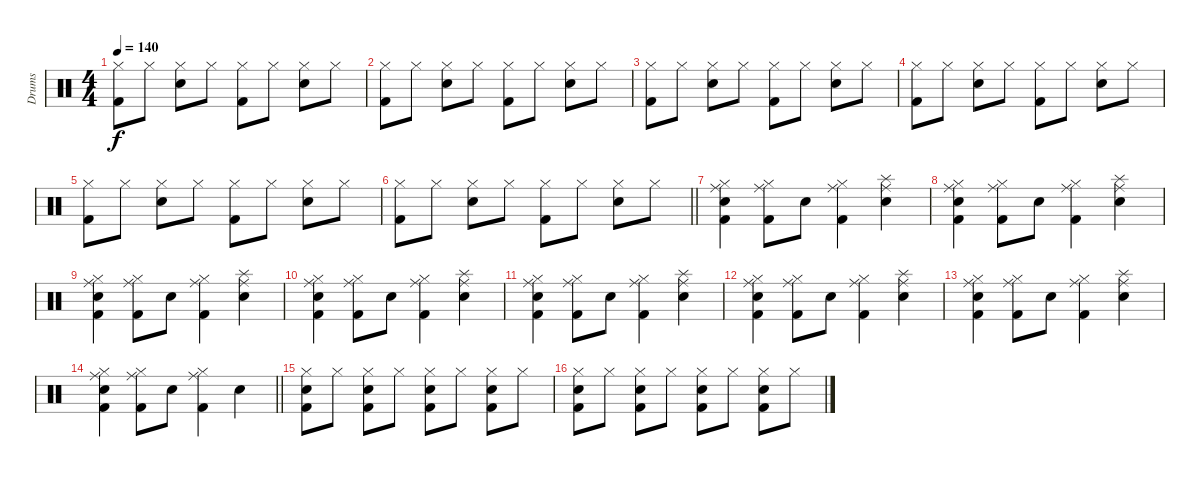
\track ("Drums" "Drums") {instrument percussion}
\staff {score}
\articulation defaults
\ts (4 4)
\tempo 140
\clef neutral
\ks c
("Hi-Hat (closed)" "Kick (hit) 2").8{dy f} "Hi-Hat (closed)".8 ("Hi-Hat (closed)" "Snare (hit) 2").8 "Hi-Hat (closed)".8 ("Hi-Hat (closed)" "Kick (hit) 2").8 "Hi-Hat (closed)".8 ("Hi-Hat (closed)" "Snare (hit) 2").8 "Hi-Hat (closed)".8 |
("Hi-Hat (closed)" "Kick (hit) 2").8 "Hi-Hat (closed)".8 ("Hi-Hat (closed)" "Snare (hit) 2").8 "Hi-Hat (closed)".8 ("Hi-Hat (closed)" "Kick (hit) 2").8 "Hi-Hat (closed)".8 ("Hi-Hat (closed)" "Snare (hit) 2").8 "Hi-Hat (closed)".8 |
("Hi-Hat (closed)" "Kick (hit) 2").8 "Hi-Hat (closed)".8 ("Hi-Hat (closed)" "Snare (hit) 2").8 "Hi-Hat (closed)".8 ("Hi-Hat (closed)" "Kick (hit) 2").8 "Hi-Hat (closed)".8 ("Hi-Hat (closed)" "Snare (hit) 2").8 "Hi-Hat (closed)".8 |
("Hi-Hat (closed)" "Kick (hit) 2").8 "Hi-Hat (closed)".8 ("Hi-Hat (closed)" "Snare (hit) 2").8 "Hi-Hat (closed)".8 ("Hi-Hat (closed)" "Kick (hit) 2").8 "Hi-Hat (closed)".8 ("Hi-Hat (closed)" "Snare (hit) 2").8 "Hi-Hat (closed)".8 |
("Hi-Hat (closed)" "Kick (hit) 2").8 "Hi-Hat (closed)".8 ("Hi-Hat (closed)" "Snare (hit) 2").8 "Hi-Hat (closed)".8 ("Hi-Hat (closed)" "Kick (hit) 2").8 "Hi-Hat (closed)".8 ("Hi-Hat (closed)" "Snare (hit) 2").8 "Hi-Hat (closed)".8 |
\barLineRight lightlight
("Hi-Hat (closed)" "Kick (hit) 2").8 "Hi-Hat (closed)".8 ("Hi-Hat (closed)" "Snare (hit) 2").8 "Hi-Hat (closed)".8 ("Hi-Hat (closed)" "Kick (hit) 2").8 "Hi-Hat (closed)".8 ("Hi-Hat (closed)" "Snare (hit) 2").8 "Hi-Hat (closed)".8 |
("Hi-Hat (closed)" "Ride (middle)" "Electric Snare (hit)" "Kick (hit) 2").4 ("Hi-Hat (closed)" "Ride (middle)" "Kick (hit) 2").8 "Electric Snare (hit)".8 ("Hi-Hat (closed)" "Ride (middle)" "Kick (hit) 2").4 ("Splash (hit)" "Ride (middle)" "Electric Snare (hit)").4 |
("Hi-Hat (closed)" "Ride (middle)" "Electric Snare (hit)" "Kick (hit) 2").4 ("Hi-Hat (closed)" "Ride (middle)" "Kick (hit) 2").8 "Electric Snare (hit)".8 ("Hi-Hat (closed)" "Ride (middle)" "Kick (hit) 2").4 ("Splash (hit)" "Ride (middle)" "Electric Snare (hit)").4 |
("Hi-Hat (closed)" "Ride (middle)" "Electric Snare (hit)" "Kick (hit) 2").4 ("Hi-Hat (closed)" "Ride (middle)" "Kick (hit) 2").8 "Electric Snare (hit)".8 ("Hi-Hat (closed)" "Ride (middle)" "Kick (hit) 2").4 ("Splash (hit)" "Ride (middle)" "Electric Snare (hit)").4 |
("Hi-Hat (closed)" "Ride (middle)" "Electric Snare (hit)" "Kick (hit) 2").4 ("Hi-Hat (closed)" "Ride (middle)" "Kick (hit) 2").8 "Electric Snare (hit)".8 ("Hi-Hat (closed)" "Ride (middle)" "Kick (hit) 2").4 ("Splash (hit)" "Ride (middle)" "Electric Snare (hit)").4 |
("Hi-Hat (closed)" "Ride (middle)" "Electric Snare (hit)" "Kick (hit) 2").4 ("Hi-Hat (closed)" "Ride (middle)" "Kick (hit) 2").8 "Electric Snare (hit)".8 ("Hi-Hat (closed)" "Ride (middle)" "Kick (hit) 2").4 ("Splash (hit)" "Ride (middle)" "Electric Snare (hit)").4 |
("Hi-Hat (closed)" "Ride (middle)" "Electric Snare (hit)" "Kick (hit) 2").4 ("Hi-Hat (closed)" "Ride (middle)" "Kick (hit) 2").8 "Electric Snare (hit)".8 ("Hi-Hat (closed)" "Ride (middle)" "Kick (hit) 2").4 ("Splash (hit)" "Ride (middle)" "Electric Snare (hit)").4 |
("Hi-Hat (closed)" "Ride (middle)" "Electric Snare (hit)" "Kick (hit) 2").4 ("Hi-Hat (closed)" "Ride (middle)" "Kick (hit) 2").8 "Electric Snare (hit)".8 ("Hi-Hat (closed)" "Ride (middle)" "Kick (hit) 2").4 ("Splash (hit)" "Ride (middle)" "Electric Snare (hit)").4 |
\barLineRight lightlight
("Hi-Hat (closed)" "Ride (middle)" "Electric Snare (hit)" "Kick (hit) 2").4 ("Hi-Hat (closed)" "Ride (middle)" "Kick (hit) 2").8 "Electric Snare (hit)".8 ("Hi-Hat (closed)" "Ride (middle)" "Kick (hit) 2").4 "Electric Snare (hit)".4 |
("Hi-Hat (closed)" "Electric Snare (hit)" "Kick (hit) 2").8 "Hi-Hat (closed)".8 ("Hi-Hat (closed)" "Electric Snare (hit)" "Kick (hit) 2").8 "Hi-Hat (closed)".8 ("Hi-Hat (closed)" "Electric Snare (hit)" "Kick (hit) 2").8 "Hi-Hat (closed)".8 ("Hi-Hat (closed)" "Electric Snare (hit)" "Kick (hit) 2").8 "Hi-Hat (closed)".8 |
("Hi-Hat (closed)" "Electric Snare (hit)" "Kick (hit) 2").8 "Hi-Hat (closed)".8 ("Hi-Hat (closed)" "Electric Snare (hit)" "Kick (hit) 2").8 "Hi-Hat (closed)".8 ("Hi-Hat (closed)" "Electric Snare (hit)" "Kick (hit) 2").8 "Hi-Hat (closed)".8 ("Hi-Hat (closed)" "Electric Snare (hit)" "Kick (hit) 2").8 "Hi-Hat (closed)".8
